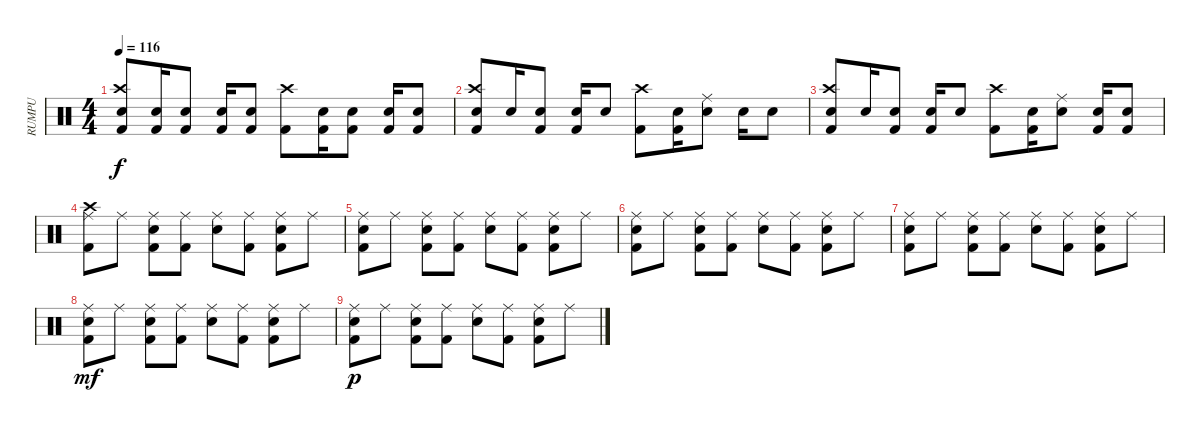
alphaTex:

\track ("RUMPU" "RUMPU") {instrument percussion}
\staff {score}
\articulation defaults
\ts (4 4)
\tempo 116
\clef neutral
\ks c
("Electric Snare (hit)" "Crash high (hit)" "Kick (hit) 2").8{dy f} ("Electric Snare (hit)" "Kick (hit) 2").16 ("Electric Snare (hit)" "Kick (hit) 2").8 ("Electric Snare (hit)" "Kick (hit) 2").16 ("Electric Snare (hit)" "Kick (hit) 2").8 ("Crash high (hit)" "Kick (hit) 2").8 ("Electric Snare (hit)" "Kick (hit) 2").16 ("Electric Snare (hit)" "Kick (hit) 2").8 ("Electric Snare (hit)" "Kick (hit) 2").16 ("Electric Snare (hit)" "Kick (hit) 2").8 |
("Electric Snare (hit)" "Crash high (hit)" "Kick (hit) 2").8 "Electric Snare (hit)".16 ("Electric Snare (hit)" "Kick (hit) 2").8 ("Electric Snare (hit)" "Kick (hit) 2").16 "Electric Snare (hit)".8 ("Crash high (hit)" "Kick (hit) 2").8 ("Electric Snare (hit)" "Kick (hit) 2").16 ("Electric Snare (hit)" "Ride (middle)").8 "Electric Snare (hit)".16 "Electric Snare (hit)".8 |
("Electric Snare (hit)" "Crash high (hit)" "Kick (hit) 2").8 "Electric Snare (hit)".16 ("Electric Snare (hit)" "Kick (hit) 2").8 ("Electric Snare (hit)" "Kick (hit) 2").16 "Electric Snare (hit)".8 ("Crash high (hit)" "Kick (hit) 2").8 ("Electric Snare (hit)" "Kick (hit) 2").16 ("Electric Snare (hit)" "Ride (middle)").8 ("Electric Snare (hit)" "Kick (hit) 2").16 ("Electric Snare (hit)" "Kick (hit) 2").8 |
("Crash high (hit)" "Ride (middle)" "Kick (hit) 2").8 "Ride (middle)".8 ("Electric Snare (hit)" "Ride (middle)" "Kick (hit) 2").8 ("Ride (middle)" "Kick (hit) 2").8 ("Electric Snare (hit)" "Ride (middle)").8 ("Ride (middle)" "Kick (hit) 2").8 ("Electric Snare (hit)" "Ride (middle)" "Kick (hit) 2").8 "Ride (middle)".8 |
("Electric Snare (hit)" "Ride (middle)" "Kick (hit) 2").8 "Ride (middle)".8 ("Electric Snare (hit)" "Ride (middle)" "Kick (hit) 2").8 ("Ride (middle)" "Kick (hit) 2").8 ("Electric Snare (hit)" "Ride (middle)").8 ("Ride (middle)" "Kick (hit) 2").8 ("Electric Snare (hit)" "Ride (middle)" "Kick (hit) 2").8 "Ride (middle)".8 |
("Electric Snare (hit)" "Ride (middle)" "Kick (hit) 2").8 "Ride (middle)".8 ("Electric Snare (hit)" "Ride (middle)" "Kick (hit) 2").8 ("Ride (middle)" "Kick (hit) 2").8 ("Electric Snare (hit)" "Ride (middle)").8 ("Ride (middle)" "Kick (hit) 2").8 ("Electric Snare (hit)" "Ride (middle)" "Kick (hit) 2").8 "Ride (middle)".8 |
("Electric Snare (hit)" "Ride (middle)" "Kick (hit) 2").8 "Ride (middle)".8 ("Electric Snare (hit)" "Ride (middle)" "Kick (hit) 2").8 ("Ride (middle)" "Kick (hit) 2").8 ("Electric Snare (hit)" "Ride (middle)").8 ("Ride (middle)" "Kick (hit) 2").8 ("Electric Snare (hit)" "Ride (middle)" "Kick (hit) 2").8 "Ride (middle)".8 |
("Electric Snare (hit)" "Ride (middle)" "Kick (hit) 2").8{dy mf} "Ride (middle)".8 ("Electric Snare (hit)" "Ride (middle)" "Kick (hit) 2").8 ("Ride (middle)" "Kick (hit) 2").8 ("Electric Snare (hit)" "Ride (middle)").8 ("Ride (middle)" "Kick (hit) 2").8 ("Electric Snare (hit)" "Ride (middle)" "Kick (hit) 2").8 "Ride (middle)".8 |
("Electric Snare (hit)" "Ride (middle)" "Kick (hit) 2").8{dy p} "Ride (middle)".8 ("Electric Snare (hit)" "Ride (middle)" "Kick (hit) 2").8 ("Ride (middle)" "Kick (hit) 2").8 ("Electric Snare (hit)" "Ride (middle)").8 ("Ride (middle)" "Kick (hit) 2").8 ("Electric Snare (hit)" "Ride (middle)" "Kick (hit) 2").8 "Ride (middle)".8
